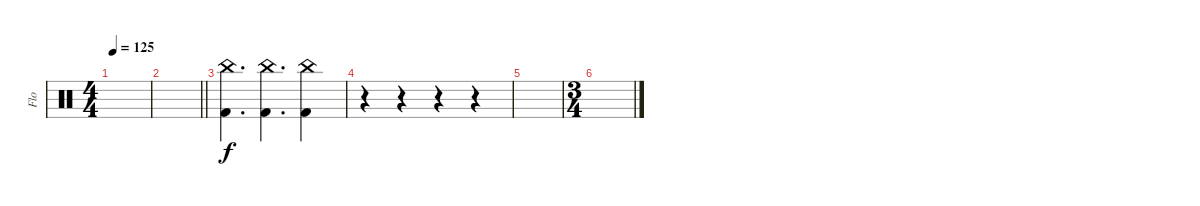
\track ("Flo" "Flo") {instrument percussion}
\staff {score}
\articulation defaults
\ts (4 4)
\tempo 125
\clef neutral
\ks c
|
\barLineRight lightlight
|
("China (hit)" "Kick (hit) 2").4{d} ("China (hit)" "Kick (hit) 2").4{d} ("China (hit)" "Kick (hit) 2").4 |
r.4 r.4 r.4 r.4 |
|
\ts (3 4)
